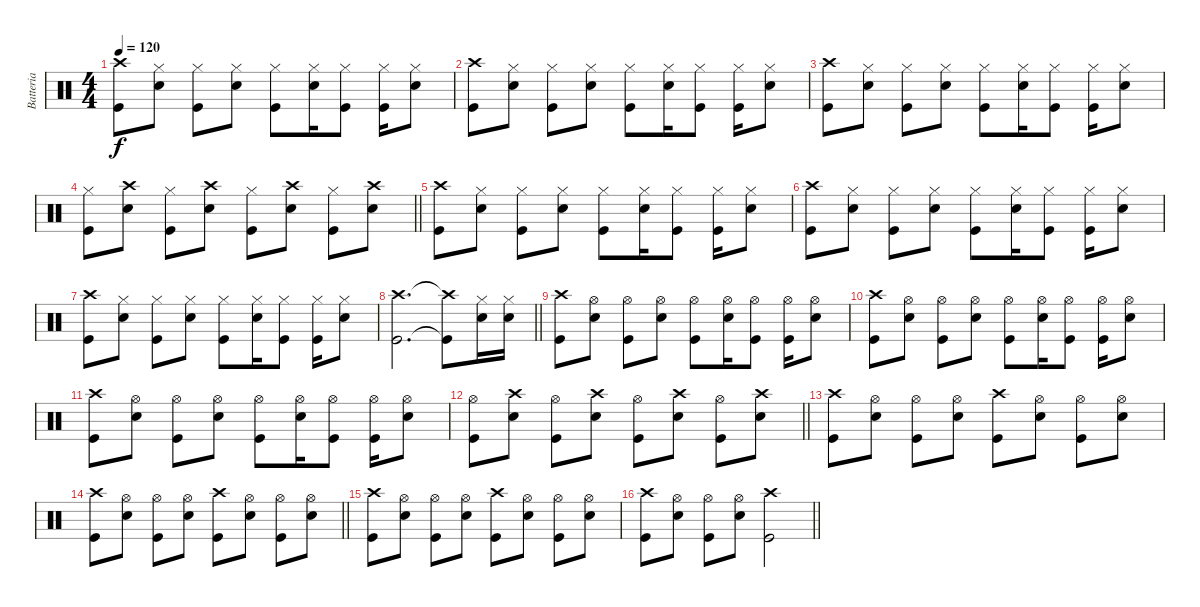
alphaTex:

\track ("Batteria" "Batteria") {instrument percussion}
\staff {score}
\articulation defaults
\ts (4 4)
\tempo 120
\clef neutral
\ks c
("Kick (hit)" "Crash high (hit)").8{dy f} ("Snare (hit) 2" "Hi-Hat (closed)").8 ("Kick (hit)" "Hi-Hat (closed)").8 ("Snare (hit) 2" "Hi-Hat (closed)").8 ("Kick (hit)" "Hi-Hat (closed)").8 ("Snare (hit) 2" "Hi-Hat (closed)").16 ("Kick (hit)" "Hi-Hat (closed)").8 ("Kick (hit)" "Hi-Hat (closed)").16 ("Snare (hit) 2" "Hi-Hat (closed)").8 |
("Kick (hit)" "Crash high (hit)").8 ("Snare (hit) 2" "Hi-Hat (closed)").8 ("Kick (hit)" "Hi-Hat (closed)").8 ("Snare (hit) 2" "Hi-Hat (closed)").8 ("Kick (hit)" "Hi-Hat (closed)").8 ("Snare (hit) 2" "Hi-Hat (closed)").16 ("Kick (hit)" "Hi-Hat (closed)").8 ("Kick (hit)" "Hi-Hat (closed)").16 ("Snare (hit) 2" "Hi-Hat (closed)").8 |
("Kick (hit)" "Crash high (hit)").8 ("Snare (hit) 2" "Hi-Hat (closed)").8 ("Kick (hit)" "Hi-Hat (closed)").8 ("Snare (hit) 2" "Hi-Hat (closed)").8 ("Kick (hit)" "Hi-Hat (closed)").8 ("Snare (hit) 2" "Hi-Hat (closed)").16 ("Kick (hit)" "Hi-Hat (closed)").8 ("Kick (hit)" "Hi-Hat (closed)").16 ("Snare (hit) 2" "Hi-Hat (closed)").8 |
\barLineRight lightlight
("Kick (hit)" "Hi-Hat (closed)").8 ("Snare (hit) 2" "Crash high (hit)").8 ("Kick (hit)" "Hi-Hat (closed)").8 ("Snare (hit) 2" "Crash high (hit)").8 ("Kick (hit)" "Hi-Hat (closed)").8 ("Snare (hit) 2" "Crash high (hit)").8 ("Kick (hit)" "Hi-Hat (closed)").8 ("Snare (hit) 2" "Crash high (hit)").8 |
("Kick (hit)" "Crash high (hit)").8 ("Snare (hit) 2" "Hi-Hat (closed)").8 ("Kick (hit)" "Hi-Hat (closed)").8 ("Snare (hit) 2" "Hi-Hat (closed)").8 ("Kick (hit)" "Hi-Hat (closed)").8 ("Snare (hit) 2" "Hi-Hat (closed)").16 ("Kick (hit)" "Hi-Hat (closed)").8 ("Kick (hit)" "Hi-Hat (closed)").16 ("Snare (hit) 2" "Hi-Hat (closed)").8 |
("Kick (hit)" "Crash high (hit)").8 ("Snare (hit) 2" "Hi-Hat (closed)").8 ("Kick (hit)" "Hi-Hat (closed)").8 ("Snare (hit) 2" "Hi-Hat (closed)").8 ("Kick (hit)" "Hi-Hat (closed)").8 ("Snare (hit) 2" "Hi-Hat (closed)").16 ("Kick (hit)" "Hi-Hat (closed)").8 ("Kick (hit)" "Hi-Hat (closed)").16 ("Snare (hit) 2" "Hi-Hat (closed)").8 |
("Kick (hit)" "Crash high (hit)").8 ("Snare (hit) 2" "Hi-Hat (closed)").8 ("Kick (hit)" "Hi-Hat (closed)").8 ("Snare (hit) 2" "Hi-Hat (closed)").8 ("Kick (hit)" "Hi-Hat (closed)").8 ("Snare (hit) 2" "Hi-Hat (closed)").16 ("Kick (hit)" "Hi-Hat (closed)").8 ("Kick (hit)" "Hi-Hat (closed)").16 ("Snare (hit) 2" "Hi-Hat (closed)").8 |
\barLineRight lightlight
("Kick (hit)" "Crash high (hit)").2{d} ("Kick (hit)"{t} "Crash high (hit)"{t}).8 ("Snare (hit) 2" "Hi-Hat (closed)").16 ("Snare (hit) 2" "Hi-Hat (closed)").16 |
("Kick (hit)" "Crash high (hit)").8 ("Snare (hit) 2" "Hi-Hat (open)").8 ("Kick (hit)" "Hi-Hat (open)").8 ("Snare (hit) 2" "Hi-Hat (open)").8 ("Kick (hit)" "Hi-Hat (open)").8 ("Snare (hit) 2" "Hi-Hat (open)").16 ("Kick (hit)" "Hi-Hat (open)").8 ("Kick (hit)" "Hi-Hat (open)").16 ("Snare (hit) 2" "Hi-Hat (open)").8 |
("Kick (hit)" "Crash high (hit)").8 ("Snare (hit) 2" "Hi-Hat (open)").8 ("Kick (hit)" "Hi-Hat (open)").8 ("Snare (hit) 2" "Hi-Hat (open)").8 ("Kick (hit)" "Hi-Hat (open)").8 ("Snare (hit) 2" "Hi-Hat (open)").16 ("Kick (hit)" "Hi-Hat (open)").8 ("Kick (hit)" "Hi-Hat (open)").16 ("Snare (hit) 2" "Hi-Hat (open)").8 |
("Kick (hit)" "Crash high (hit)").8 ("Snare (hit) 2" "Hi-Hat (open)").8 ("Kick (hit)" "Hi-Hat (open)").8 ("Snare (hit) 2" "Hi-Hat (open)").8 ("Kick (hit)" "Hi-Hat (open)").8 ("Snare (hit) 2" "Hi-Hat (open)").16 ("Kick (hit)" "Hi-Hat (open)").8 ("Kick (hit)" "Hi-Hat (open)").16 ("Snare (hit) 2" "Hi-Hat (open)").8 |
\barLineRight lightlight
("Kick (hit)" "Hi-Hat (open)").8 ("Snare (hit) 2" "Crash high (hit)").8 ("Kick (hit)" "Hi-Hat (open)").8 ("Snare (hit) 2" "Crash high (hit)").8 ("Kick (hit)" "Hi-Hat (open)").8 ("Snare (hit) 2" "Crash high (hit)").8 ("Kick (hit)" "Hi-Hat (open)").8 ("Snare (hit) 2" "Crash high (hit)").8 |
("Kick (hit)" "Crash high (hit)").8 ("Snare (hit) 2" "Hi-Hat (open)").8 ("Kick (hit)" "Hi-Hat (open)").8 ("Snare (hit) 2" "Hi-Hat (open)").8 ("Kick (hit)" "Crash high (hit)").8 ("Snare (hit) 2" "Hi-Hat (open)").8 ("Kick (hit)" "Hi-Hat (open)").8 ("Snare (hit) 2" "Hi-Hat (open)").8 |
\barLineRight lightlight
("Kick (hit)" "Crash high (hit)").8 ("Snare (hit) 2" "Hi-Hat (open)").8 ("Kick (hit)" "Hi-Hat (open)").8 ("Snare (hit) 2" "Hi-Hat (open)").8 ("Kick (hit)" "Crash high (hit)").8 ("Snare (hit) 2" "Hi-Hat (open)").8 ("Kick (hit)" "Hi-Hat (open)").8 ("Snare (hit) 2" "Hi-Hat (open)").8 |
("Kick (hit)" "Crash high (hit)").8 ("Snare (hit) 2" "Hi-Hat (open)").8 ("Kick (hit)" "Hi-Hat (open)").8 ("Snare (hit) 2" "Hi-Hat (open)").8 ("Kick (hit)" "Crash high (hit)").8 ("Snare (hit) 2" "Hi-Hat (open)").8 ("Kick (hit)" "Hi-Hat (open)").8 ("Snare (hit) 2" "Hi-Hat (open)").8 |
\barLineRight lightlight
("Kick (hit)" "Crash high (hit)").8 ("Snare (hit) 2" "Hi-Hat (open)").8 ("Kick (hit)" "Hi-Hat (open)").8 ("Snare (hit) 2" "Hi-Hat (open)").8 ("Kick (hit)" "Crash high (hit)").2
